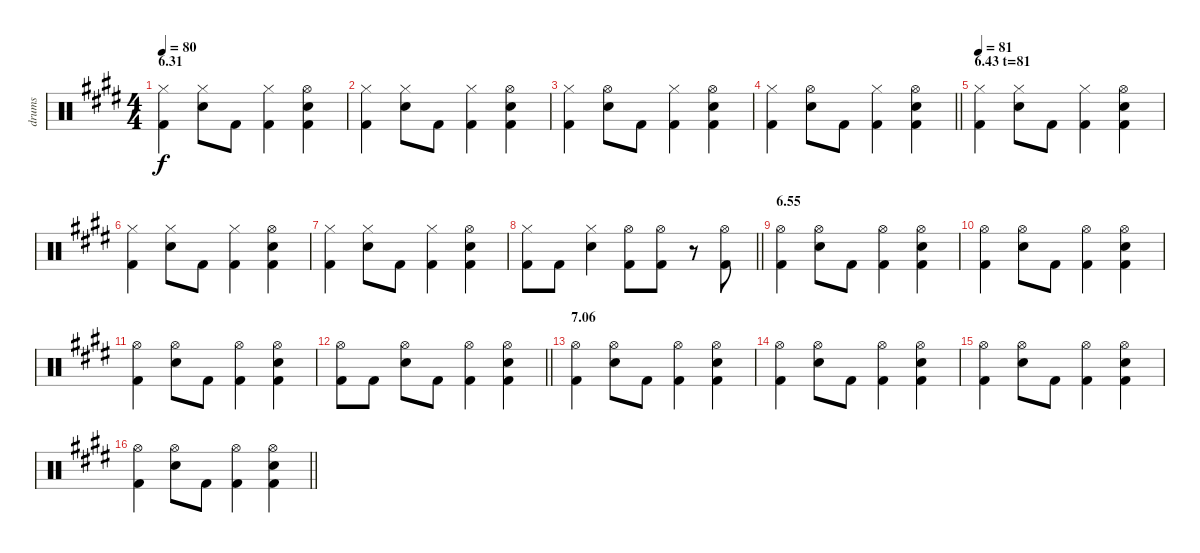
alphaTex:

\track ("drums" "drums") {instrument percussion}
\staff {score}
\articulation defaults
\ts (4 4)
\section ("" "6.31")
\tempo 80
\clef neutral
\ks e
("Hi-Hat (closed)" "Kick (hit) 2").4{dy f} ("Hi-Hat (closed)" "Electric Snare (hit)").8 "Kick (hit) 2".8 ("Hi-Hat (closed)" "Kick (hit) 2").4 ("Hi-Hat (open)" "Electric Snare (hit)" "Kick (hit) 2").4 |
("Hi-Hat (closed)" "Kick (hit) 2").4 ("Hi-Hat (closed)" "Electric Snare (hit)").8 "Kick (hit) 2".8 ("Hi-Hat (closed)" "Kick (hit) 2").4 ("Hi-Hat (open)" "Electric Snare (hit)" "Kick (hit) 2").4 |
("Hi-Hat (closed)" "Kick (hit) 2").4 ("Hi-Hat (open)" "Electric Snare (hit)").8 "Kick (hit) 2".8 ("Hi-Hat (closed)" "Kick (hit) 2").4 ("Hi-Hat (open)" "Electric Snare (hit)" "Kick (hit) 2").4 |
\barLineRight lightlight
("Hi-Hat (closed)" "Kick (hit) 2").4 ("Hi-Hat (open)" "Electric Snare (hit)").8 "Kick (hit) 2".8 ("Hi-Hat (closed)" "Kick (hit) 2").4 ("Hi-Hat (open)" "Electric Snare (hit)" "Kick (hit) 2").4 |
\section ("" "6.43 t=81")
\tempo 81
("Hi-Hat (closed)" "Kick (hit) 2").4 ("Hi-Hat (closed)" "Electric Snare (hit)").8 "Kick (hit) 2".8 ("Hi-Hat (closed)" "Kick (hit) 2").4 ("Hi-Hat (open)" "Electric Snare (hit)" "Kick (hit) 2").4 |
("Hi-Hat (closed)" "Kick (hit) 2").4 ("Hi-Hat (closed)" "Electric Snare (hit)").8 "Kick (hit) 2".8 ("Hi-Hat (closed)" "Kick (hit) 2").4 ("Hi-Hat (open)" "Electric Snare (hit)" "Kick (hit) 2").4 |
("Hi-Hat (closed)" "Kick (hit) 2").4 ("Hi-Hat (closed)" "Electric Snare (hit)").8 "Kick (hit) 2".8 ("Hi-Hat (closed)" "Kick (hit) 2").4 ("Hi-Hat (open)" "Electric Snare (hit)" "Kick (hit) 2").4 |
\barLineRight lightlight
("Hi-Hat (closed)" "Kick (hit) 2").8 "Kick (hit) 2".8 ("Hi-Hat (closed)" "Electric Snare (hit)").4 ("Hi-Hat (open)" "Kick (hit) 2").8 ("Hi-Hat (open)" "Kick (hit) 2").8 r.8 ("Hi-Hat (open)" "Kick (hit) 2").8 |
\section ("" "6.55")
("Hi-Hat (open)" "Kick (hit) 2").4 ("Hi-Hat (open)" "Electric Snare (hit)").8 "Kick (hit) 2".8 ("Hi-Hat (open)" "Kick (hit) 2").4 ("Hi-Hat (open)" "Electric Snare (hit)" "Kick (hit) 2").4 |
("Hi-Hat (open)" "Kick (hit) 2").4 ("Hi-Hat (open)" "Electric Snare (hit)").8 "Kick (hit) 2".8 ("Hi-Hat (open)" "Kick (hit) 2").4 ("Hi-Hat (open)" "Electric Snare (hit)" "Kick (hit) 2").4 |
("Hi-Hat (open)" "Kick (hit) 2").4 ("Hi-Hat (open)" "Electric Snare (hit)").8 "Kick (hit) 2".8 ("Hi-Hat (open)" "Kick (hit) 2").4 ("Hi-Hat (open)" "Electric Snare (hit)" "Kick (hit) 2").4 |
\barLineRight lightlight
("Hi-Hat (open)" "Kick (hit) 2").8 "Kick (hit) 2".8 ("Hi-Hat (open)" "Electric Snare (hit)").8 "Kick (hit) 2".8 ("Hi-Hat (open)" "Kick (hit) 2").4 ("Hi-Hat (open)" "Electric Snare (hit)" "Kick (hit) 2").4 |
\section ("" "7.06")
("Hi-Hat (open)" "Kick (hit) 2").4 ("Hi-Hat (open)" "Electric Snare (hit)").8 "Kick (hit) 2".8 ("Hi-Hat (open)" "Kick (hit) 2").4 ("Hi-Hat (open)" "Electric Snare (hit)" "Kick (hit) 2").4 |
("Hi-Hat (open)" "Kick (hit) 2").4 ("Hi-Hat (open)" "Electric Snare (hit)").8 "Kick (hit) 2".8 ("Hi-Hat (open)" "Kick (hit) 2").4 ("Hi-Hat (open)" "Electric Snare (hit)" "Kick (hit) 2").4 |
("Hi-Hat (open)" "Kick (hit) 2").4 ("Hi-Hat (open)" "Electric Snare (hit)").8 "Kick (hit) 2".8 ("Hi-Hat (open)" "Kick (hit) 2").4 ("Hi-Hat (open)" "Electric Snare (hit)" "Kick (hit) 2").4 |
\barLineRight lightlight
("Hi-Hat (open)" "Kick (hit) 2").4 ("Hi-Hat (open)" "Electric Snare (hit)").8 "Kick (hit) 2".8 ("Hi-Hat (open)" "Kick (hit) 2").4 ("Hi-Hat (open)" "Electric Snare (hit)" "Kick (hit) 2").4
